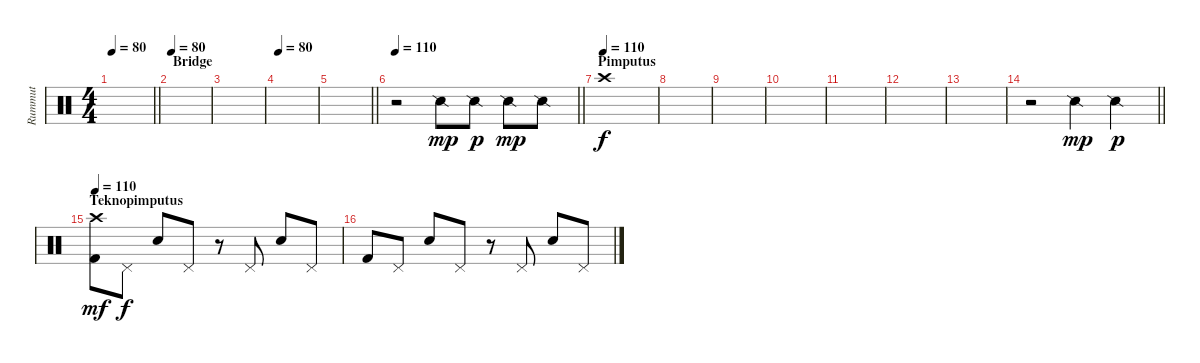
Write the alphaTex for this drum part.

\track ("Rummut" "Rummut") {instrument percussion}
\staff {score}
\articulation defaults
\ts (4 4)
\tempo 80
\clef neutral
\barLineRight lightlight
\ks c
|
\section ("" "Bridge")
\tempo 80
|
|
\tempo 80
|
\barLineRight lightlight
|
\tempo 110
\barLineRight lightlight
r.2 "Snare (side stick) 2".8{dy mp} "Snare (side stick) 2".8{dy p} "Snare (side stick) 2".8{dy mp} "Snare (side stick) 2".8 |
\section ("" "Pimputus")
\tempo (110)
"Crash high (hit)".1{dy f} |
|
|
|
|
|
|
\barLineRight lightlight
r.2 "Snare (side stick) 2".4{dy mp} "Snare (side stick) 2".4{dy p} |
\section ("" "Teknopimputus")
\tempo 110
("Crash high (hit)" "Kick (hit) 2").8{dy mf} "Pedal Hi-Hat (hit)".8{dy f} "Snare (hit) 2".8 "Pedal Hi-Hat (hit)".8 r.8 "Pedal Hi-Hat (hit)".8 "Snare (hit) 2".8 "Pedal Hi-Hat (hit)".8 |
"Kick (hit) 2".8 "Pedal Hi-Hat (hit)".8 "Snare (hit) 2".8 "Pedal Hi-Hat (hit)".8 r.8 "Pedal Hi-Hat (hit)".8 "Snare (hit) 2".8 "Pedal Hi-Hat (hit)".8
